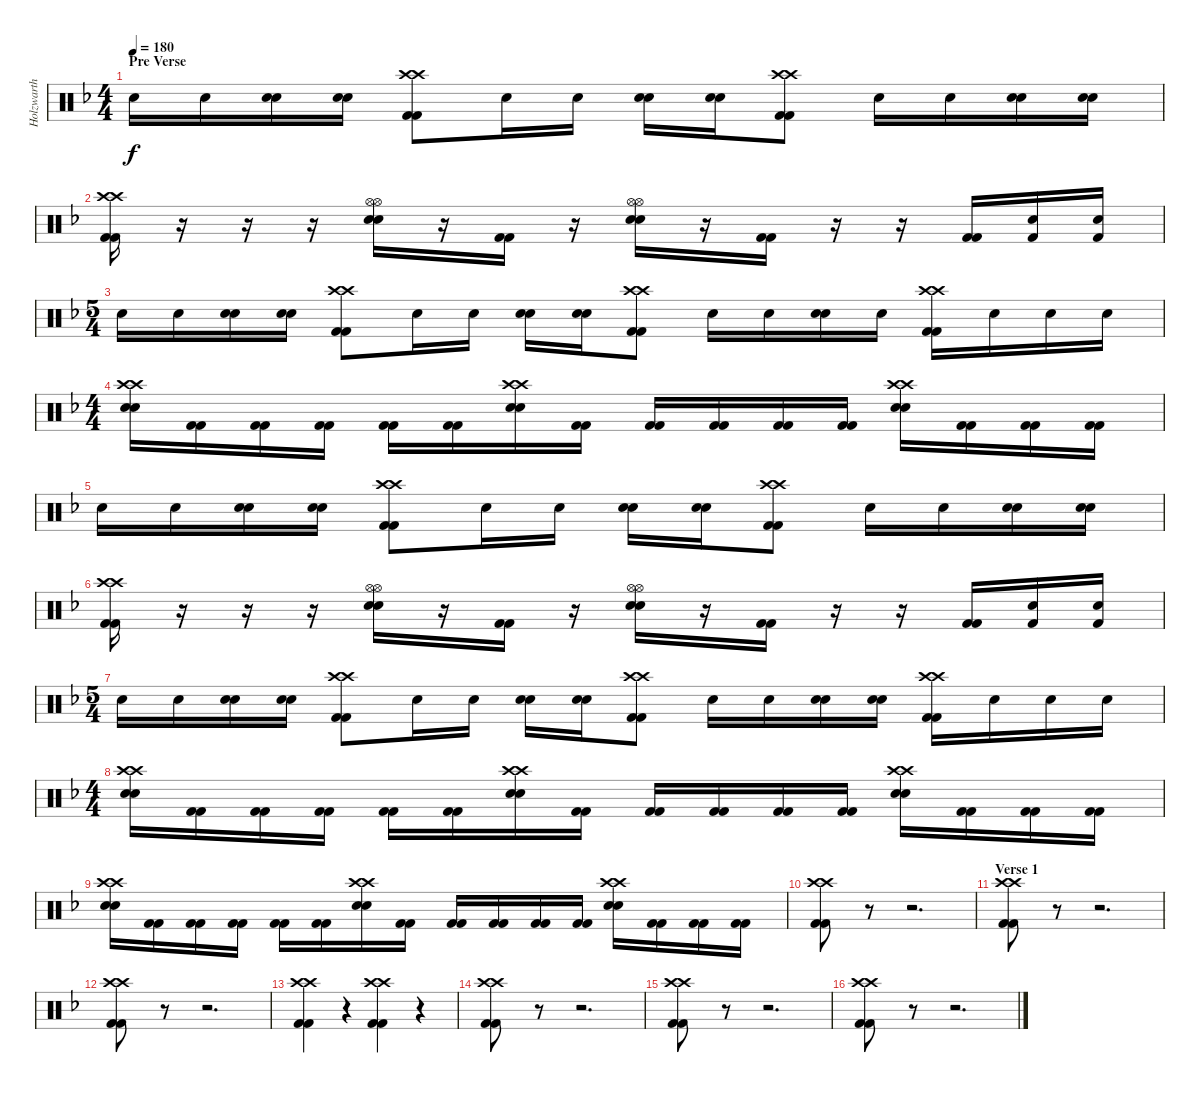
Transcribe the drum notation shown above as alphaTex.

\track ("Holzwarth" "Holzwarth") {instrument percussion}
\staff {score}
\articulation defaults
\ts (4 4)
\section ("" "Pre Verse")
\tempo 180
\clef neutral
\ks dminor "Snare (hit) 2".16{dy f} "Snare (hit) 2".16
("Snare (hit) 2" "Snare (hit) 2").16 ("Snare (hit) 2" "Snare (hit) 2").16 ("Kick (hit) 2" "Kick (hit) 2" "Crash high (hit)" "Crash high (hit)").8 "Snare (hit) 2".16 "Snare (hit) 2".16 ("Snare (hit) 2" "Snare (hit) 2").16 ("Snare (hit) 2" "Snare (hit) 2").16 ("Kick (hit) 2" "Kick (hit) 2" "Crash high (hit)" "Crash high (hit)").8 "Snare (hit) 2".16 "Snare (hit) 2".16 ("Snare (hit) 2" "Snare (hit) 2").16 ("Snare (hit) 2" "Snare (hit) 2").16 |
("Kick (hit) 2" "Kick (hit) 2" "Crash high (hit)" "Crash high (hit)").16 r.16 r.16 r.16 ("Snare (hit) 2" "Snare (hit) 2" "Hi-Hat (open)" "Hi-Hat (open)").16 r.16 ("Kick (hit) 2" "Kick (hit) 2").16 r.16 ("Snare (hit) 2" "Snare (hit) 2" "Hi-Hat (open)" "Hi-Hat (open)").16 r.16 ("Kick (hit) 2" "Kick (hit) 2").16 r.16 r.16 ("Kick (hit) 2" "Kick (hit) 2").16 ("Kick (hit) 2" "Snare (hit) 2").16 ("Kick (hit) 2" "Snare (hit) 2").16 |
\ts (5 4)
"Snare (hit) 2".16 "Snare (hit) 2".16 ("Snare (hit) 2" "Snare (hit) 2").16 ("Snare (hit) 2" "Snare (hit) 2").16 ("Kick (hit) 2" "Kick (hit) 2" "Crash high (hit)" "Crash high (hit)").8 "Snare (hit) 2".16 "Snare (hit) 2".16 ("Snare (hit) 2" "Snare (hit) 2").16 ("Snare (hit) 2" "Snare (hit) 2").16 ("Kick (hit) 2" "Kick (hit) 2" "Crash high (hit)" "Crash high (hit)").8 "Snare (hit) 2".16 "Snare (hit) 2".16 ("Snare (hit) 2" "Snare (hit) 2").16 "Snare (hit) 2".16 ("Kick (hit) 2" "Kick (hit) 2" "Crash high (hit)" "Crash high (hit)").16 "Snare (hit) 2".16 "Snare (hit) 2".16 "Snare (hit) 2".16 |
\ts (4 4)
("Snare (hit) 2" "Snare (hit) 2" "Crash high (hit)" "Crash high (hit)").16 ("Kick (hit) 2" "Kick (hit) 2").16 ("Kick (hit) 2" "Kick (hit) 2").16 ("Kick (hit) 2" "Kick (hit) 2").16 ("Kick (hit) 2" "Kick (hit) 2").16 ("Kick (hit) 2" "Kick (hit) 2").16 ("Snare (hit) 2" "Snare (hit) 2" "Crash high (hit)" "Crash high (hit)").16 ("Kick (hit) 2" "Kick (hit) 2").16 ("Kick (hit) 2" "Kick (hit) 2").16 ("Kick (hit) 2" "Kick (hit) 2").16 ("Kick (hit) 2" "Kick (hit) 2").16 ("Kick (hit) 2" "Kick (hit) 2").16 ("Snare (hit) 2" "Snare (hit) 2" "Crash high (hit)" "Crash high (hit)").16 ("Kick (hit) 2" "Kick (hit) 2").16 ("Kick (hit) 2" "Kick (hit) 2").16 ("Kick (hit) 2" "Kick (hit) 2").16 |
"Snare (hit) 2".16 "Snare (hit) 2".16 ("Snare (hit) 2" "Snare (hit) 2").16 ("Snare (hit) 2" "Snare (hit) 2").16 ("Kick (hit) 2" "Kick (hit) 2" "Crash high (hit)" "Crash high (hit)").8 "Snare (hit) 2".16 "Snare (hit) 2".16 ("Snare (hit) 2" "Snare (hit) 2").16 ("Snare (hit) 2" "Snare (hit) 2").16 ("Kick (hit) 2" "Kick (hit) 2" "Crash high (hit)" "Crash high (hit)").8 "Snare (hit) 2".16 "Snare (hit) 2".16 ("Snare (hit) 2" "Snare (hit) 2").16 ("Snare (hit) 2" "Snare (hit) 2").16 |
("Kick (hit) 2" "Kick (hit) 2" "Crash high (hit)" "Crash high (hit)").16 r.16 r.16 r.16 ("Snare (hit) 2" "Snare (hit) 2" "Hi-Hat (open)" "Hi-Hat (open)").16 r.16 ("Kick (hit) 2" "Kick (hit) 2").16 r.16 ("Snare (hit) 2" "Snare (hit) 2" "Hi-Hat (open)" "Hi-Hat (open)").16 r.16 ("Kick (hit) 2" "Kick (hit) 2").16 r.16 r.16 ("Kick (hit) 2" "Kick (hit) 2").16 ("Kick (hit) 2" "Snare (hit) 2").16 ("Kick (hit) 2" "Snare (hit) 2").16 |
\ts (5 4)
"Snare (hit) 2".16 "Snare (hit) 2".16 ("Snare (hit) 2" "Snare (hit) 2").16 ("Snare (hit) 2" "Snare (hit) 2").16 ("Kick (hit) 2" "Kick (hit) 2" "Crash high (hit)" "Crash high (hit)").8 "Snare (hit) 2".16 "Snare (hit) 2".16 ("Snare (hit) 2" "Snare (hit) 2").16 ("Snare (hit) 2" "Snare (hit) 2").16 ("Kick (hit) 2" "Kick (hit) 2" "Crash high (hit)" "Crash high (hit)").8 "Snare (hit) 2".16 "Snare (hit) 2".16 ("Snare (hit) 2" "Snare (hit) 2").16 ("Snare (hit) 2" "Snare (hit) 2").16 ("Kick (hit) 2" "Kick (hit) 2" "Crash high (hit)" "Crash high (hit)").16 "Snare (hit) 2".16 "Snare (hit) 2".16 "Snare (hit) 2".16 |
\ts (4 4)
("Snare (hit) 2" "Snare (hit) 2" "Crash high (hit)" "Crash high (hit)").16 ("Kick (hit) 2" "Kick (hit) 2").16 ("Kick (hit) 2" "Kick (hit) 2").16 ("Kick (hit) 2" "Kick (hit) 2").16 ("Kick (hit) 2" "Kick (hit) 2").16 ("Kick (hit) 2" "Kick (hit) 2").16 ("Snare (hit) 2" "Snare (hit) 2" "Crash high (hit)" "Crash high (hit)").16 ("Kick (hit) 2" "Kick (hit) 2").16 ("Kick (hit) 2" "Kick (hit) 2").16 ("Kick (hit) 2" "Kick (hit) 2").16 ("Kick (hit) 2" "Kick (hit) 2").16 ("Kick (hit) 2" "Kick (hit) 2").16 ("Snare (hit) 2" "Snare (hit) 2" "Crash high (hit)" "Crash high (hit)").16 ("Kick (hit) 2" "Kick (hit) 2").16 ("Kick (hit) 2" "Kick (hit) 2").16 ("Kick (hit) 2" "Kick (hit) 2").16 |
("Snare (hit) 2" "Snare (hit) 2" "Crash high (hit)" "Crash high (hit)").16 ("Kick (hit) 2" "Kick (hit) 2").16 ("Kick (hit) 2" "Kick (hit) 2").16 ("Kick (hit) 2" "Kick (hit) 2").16 ("Kick (hit) 2" "Kick (hit) 2").16 ("Kick (hit) 2" "Kick (hit) 2").16 ("Snare (hit) 2" "Snare (hit) 2" "Crash high (hit)" "Crash high (hit)").16 ("Kick (hit) 2" "Kick (hit) 2").16 ("Kick (hit) 2" "Kick (hit) 2").16 ("Kick (hit) 2" "Kick (hit) 2").16 ("Kick (hit) 2" "Kick (hit) 2").16 ("Kick (hit) 2" "Kick (hit) 2").16 ("Snare (hit) 2" "Snare (hit) 2" "Crash high (hit)" "Crash high (hit)").16 ("Kick (hit) 2" "Kick (hit) 2").16 ("Kick (hit) 2" "Kick (hit) 2").16 ("Kick (hit) 2" "Kick (hit) 2").16 |
("Kick (hit) 2" "Kick (hit) 2" "Crash high (hit)" "Crash high (hit)").8 r.8 r.2{d} |
\section ("" "Verse 1")
("Kick (hit) 2" "Kick (hit) 2" "Crash high (hit)" "Crash high (hit)").8 r.8 r.2{d} |
("Kick (hit) 2" "Kick (hit) 2" "Crash high (hit)" "Crash high (hit)").8 r.8 r.2{d} |
("Kick (hit) 2" "Kick (hit) 2" "Crash high (hit)" "Crash high (hit)").4 r.4 ("Kick (hit) 2" "Kick (hit) 2" "Crash high (hit)" "Crash high (hit)").4 r.4 |
("Kick (hit) 2" "Kick (hit) 2" "Crash high (hit)" "Crash high (hit)").8 r.8 r.2{d} |
("Kick (hit) 2" "Kick (hit) 2" "Crash high (hit)" "Crash high (hit)").8 r.8 r.2{d} |
("Kick (hit) 2" "Kick (hit) 2" "Crash high (hit)" "Crash high (hit)").8 r.8 r.2{d}
